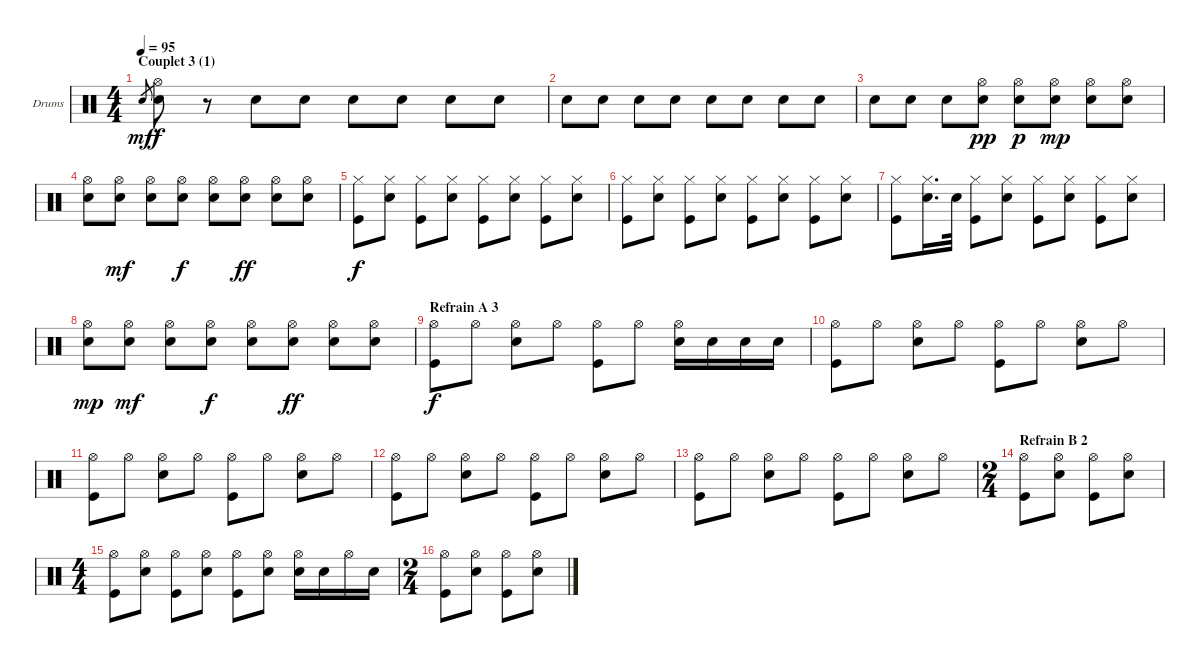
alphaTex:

\bracketExtendMode groupsimilarinstruments
\firstSystemTrackNameOrientation horizontal
\otherSystemsTrackNameOrientation horizontal
\chordDiagramsInScore
\track ("Drumkit" "Drums") {instrument percussion}
\staff {score}
\articulation defaults
\ts (4 4)
\section ("" "Couplet 3 (1)")
\tempo 95
\clef neutral
\ks c "Snare (hit) 2".8{gr dy mf}
("Hi-Hat (open)" "Snare (hit) 2").8{dy f} r.8 "Snare (hit) 2".8 "Snare (hit) 2".8 "Snare (hit) 2".8 "Snare (hit) 2".8 "Snare (hit) 2".8 "Snare (hit) 2".8 |
"Snare (hit) 2".8 "Snare (hit) 2".8 "Snare (hit) 2".8 "Snare (hit) 2".8 "Snare (hit) 2".8 "Snare (hit) 2".8 "Snare (hit) 2".8 "Snare (hit) 2".8 |
"Snare (hit) 2".8 "Snare (hit) 2".8 "Snare (hit) 2".8 ("Hi-Hat (open)" "Snare (hit) 2").8{dy pp} ("Hi-Hat (open)" "Snare (hit) 2").8{dy p} ("Hi-Hat (open)" "Snare (hit) 2").8{dy mp} ("Hi-Hat (open)" "Snare (hit) 2").8 ("Hi-Hat (open)" "Snare (hit) 2").8 |
("Hi-Hat (open)" "Snare (hit) 2").8 ("Hi-Hat (open)" "Snare (hit) 2").8{dy mf} ("Hi-Hat (open)" "Snare (hit) 2").8 ("Hi-Hat (open)" "Snare (hit) 2").8{dy f} ("Hi-Hat (open)" "Snare (hit) 2").8 ("Hi-Hat (open)" "Snare (hit) 2").8{dy ff} ("Hi-Hat (open)" "Snare (hit) 2").8 ("Hi-Hat (open)" "Snare (hit) 2").8 |
("Hi-Hat (closed)" "Kick (hit)").8{dy f} ("Hi-Hat (closed)" "Snare (hit) 2").8 ("Hi-Hat (closed)" "Kick (hit)").8 ("Hi-Hat (closed)" "Snare (hit) 2").8 ("Hi-Hat (closed)" "Kick (hit)").8 ("Hi-Hat (closed)" "Snare (hit) 2").8 ("Hi-Hat (closed)" "Kick (hit)").8 ("Hi-Hat (closed)" "Snare (hit) 2").8 |
("Hi-Hat (closed)" "Kick (hit)").8 ("Hi-Hat (closed)" "Snare (hit) 2").8 ("Hi-Hat (closed)" "Kick (hit)").8 ("Hi-Hat (closed)" "Snare (hit) 2").8 ("Hi-Hat (closed)" "Kick (hit)").8 ("Hi-Hat (closed)" "Snare (hit) 2").8 ("Hi-Hat (closed)" "Kick (hit)").8 ("Hi-Hat (closed)" "Snare (hit) 2").8 |
("Hi-Hat (closed)" "Kick (hit)").8 ("Hi-Hat (closed)" "Snare (hit) 2").16{d} "Snare (hit) 2".32 ("Hi-Hat (closed)" "Kick (hit)").8 ("Hi-Hat (closed)" "Snare (hit) 2").8 ("Hi-Hat (closed)" "Kick (hit)").8 ("Hi-Hat (closed)" "Snare (hit) 2").8 ("Hi-Hat (closed)" "Kick (hit)").8 ("Hi-Hat (closed)" "Snare (hit) 2").8 |
("Hi-Hat (open)" "Snare (hit) 2").8{dy mp} ("Hi-Hat (open)" "Snare (hit) 2").8{dy mf} ("Hi-Hat (open)" "Snare (hit) 2").8 ("Hi-Hat (open)" "Snare (hit) 2").8{dy f} ("Hi-Hat (open)" "Snare (hit) 2").8 ("Hi-Hat (open)" "Snare (hit) 2").8{dy ff} ("Hi-Hat (open)" "Snare (hit) 2").8 ("Hi-Hat (open)" "Snare (hit) 2").8 |
\section ("" "Refrain A 3")
("Hi-Hat (open)" "Kick (hit)").8{dy f} "Hi-Hat (open)".8 ("Hi-Hat (open)" "Snare (hit) 2").8 "Hi-Hat (open)".8 ("Hi-Hat (open)" "Kick (hit)").8 "Hi-Hat (open)".8 ("Hi-Hat (open)" "Snare (hit) 2").16 "Snare (hit) 2".16 "Snare (hit) 2".16 "Snare (hit) 2".16 |
("Hi-Hat (open)" "Kick (hit)").8 "Hi-Hat (open)".8 ("Hi-Hat (open)" "Snare (hit) 2").8 "Hi-Hat (open)".8 ("Hi-Hat (open)" "Kick (hit)").8 "Hi-Hat (open)".8 ("Hi-Hat (open)" "Snare (hit) 2").8 "Hi-Hat (open)".8 |
("Hi-Hat (open)" "Kick (hit)").8 "Hi-Hat (open)".8 ("Hi-Hat (open)" "Snare (hit) 2").8 "Hi-Hat (open)".8 ("Hi-Hat (open)" "Kick (hit)").8 "Hi-Hat (open)".8 ("Hi-Hat (open)" "Snare (hit) 2").8 "Hi-Hat (open)".8 |
("Hi-Hat (open)" "Kick (hit)").8 "Hi-Hat (open)".8 ("Hi-Hat (open)" "Snare (hit) 2").8 "Hi-Hat (open)".8 ("Hi-Hat (open)" "Kick (hit)").8 "Hi-Hat (open)".8 ("Hi-Hat (open)" "Snare (hit) 2").8 "Hi-Hat (open)".8 |
("Hi-Hat (open)" "Kick (hit)").8 "Hi-Hat (open)".8 ("Hi-Hat (open)" "Snare (hit) 2").8 "Hi-Hat (open)".8 ("Hi-Hat (open)" "Kick (hit)").8 "Hi-Hat (open)".8 ("Hi-Hat (open)" "Snare (hit) 2").8 "Hi-Hat (open)".8 |
\ts (2 4)
\section ("" "Refrain B 2")
("Hi-Hat (open)" "Kick (hit)").8 ("Hi-Hat (open)" "Snare (hit) 2").8 ("Hi-Hat (open)" "Kick (hit)").8 ("Hi-Hat (open)" "Snare (hit) 2").8 |
\ts (4 4)
("Hi-Hat (open)" "Kick (hit)").8 ("Hi-Hat (open)" "Snare (hit) 2").8 ("Hi-Hat (open)" "Kick (hit)").8 ("Hi-Hat (open)" "Snare (hit) 2").8 ("Hi-Hat (open)" "Kick (hit)").8 ("Hi-Hat (open)" "Snare (hit) 2").8 ("Hi-Hat (open)" "Snare (hit) 2").16 "Snare (hit) 2".16 "Hi-Hat (open)".16 "Snare (hit) 2".16 |
\ts (2 4)
("Hi-Hat (open)" "Kick (hit)").8 ("Hi-Hat (open)" "Snare (hit) 2").8 ("Hi-Hat (open)" "Kick (hit)").8 ("Hi-Hat (open)" "Snare (hit) 2").8
